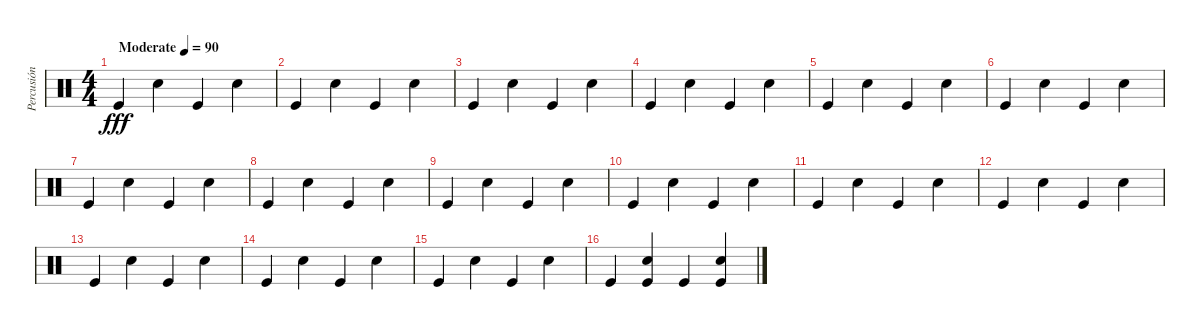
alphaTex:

\track ("Percusión" "Percusión") {instrument percussion}
\staff {score}
\articulation defaults
\ts (4 4)
\tempo (90 "Moderate")
\clef neutral
\ks c "Kick (hit)".4{dy fff} "Snare (hit) 2".4 "Kick (hit)".4 "Snare (hit) 2".4
|
"Kick (hit)".4 "Snare (hit) 2".4 "Kick (hit)".4 "Snare (hit) 2".4 |
"Kick (hit)".4 "Snare (hit) 2".4 "Kick (hit)".4 "Snare (hit) 2".4 |
"Kick (hit)".4 "Snare (hit) 2".4 "Kick (hit)".4 "Snare (hit) 2".4 |
"Kick (hit)".4 "Snare (hit) 2".4 "Kick (hit)".4 "Snare (hit) 2".4 |
"Kick (hit)".4 "Snare (hit) 2".4 "Kick (hit)".4 "Snare (hit) 2".4 |
"Kick (hit)".4 "Snare (hit) 2".4 "Kick (hit)".4 "Snare (hit) 2".4 |
"Kick (hit)".4 "Snare (hit) 2".4 "Kick (hit)".4 "Snare (hit) 2".4 |
"Kick (hit)".4 "Snare (hit) 2".4 "Kick (hit)".4 "Snare (hit) 2".4 |
"Kick (hit)".4 "Snare (hit) 2".4 "Kick (hit)".4 "Snare (hit) 2".4 |
"Kick (hit)".4 "Snare (hit) 2".4 "Kick (hit)".4 "Snare (hit) 2".4 |
"Kick (hit)".4 "Snare (hit) 2".4 "Kick (hit)".4 "Snare (hit) 2".4 |
"Kick (hit)".4 "Snare (hit) 2".4 "Kick (hit)".4 "Snare (hit) 2".4 |
"Kick (hit)".4 "Snare (hit) 2".4 "Kick (hit)".4 "Snare (hit) 2".4 |
"Kick (hit)".4 "Snare (hit) 2".4 "Kick (hit)".4 "Snare (hit) 2".4 |
"Kick (hit)".4 ("Snare (hit) 2" "Kick (hit)").4 "Kick (hit)".4 ("Snare (hit) 2" "Kick (hit)").4
